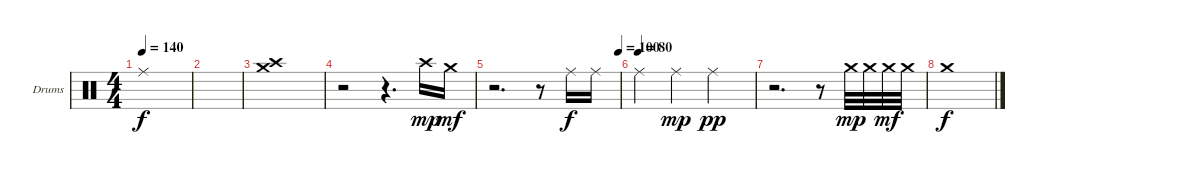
\defaultSystemsLayout 4
\bracketExtendMode groupsimilarinstruments
\firstSystemTrackNameOrientation horizontal
\otherSystemsTrackNameOrientation horizontal
\track ("Helders" "Drums") {instrument percussion}
\staff {score}
\articulation defaults
\ts (4 4)
\tempo 140
\clef neutral
\ks c "Ride (middle)".1{dy f}
|
|
("Crash high (hit)" "Crash medium (hit)").1 |
r.2 r.4{d} "Crash high (hit)".16{dy mp} "Crash medium (hit)".16{dy mf} |
\tempo (100 0.99375)
r.2{d} r.8 "Ride (middle)".16{dy f} "Ride (middle)".16 |
\tempo (80)
"Ride (middle)".4 "Ride (middle)".4{dy mp} "Ride (middle)".2{dy pp} |
r.2{d} r.8 "Crash medium (hit)".32{dy mp} "Crash medium (hit)".32 "Crash medium (hit)".32{dy mf} "Crash medium (hit)".32 |
"Crash medium (hit)".1{dy f}
